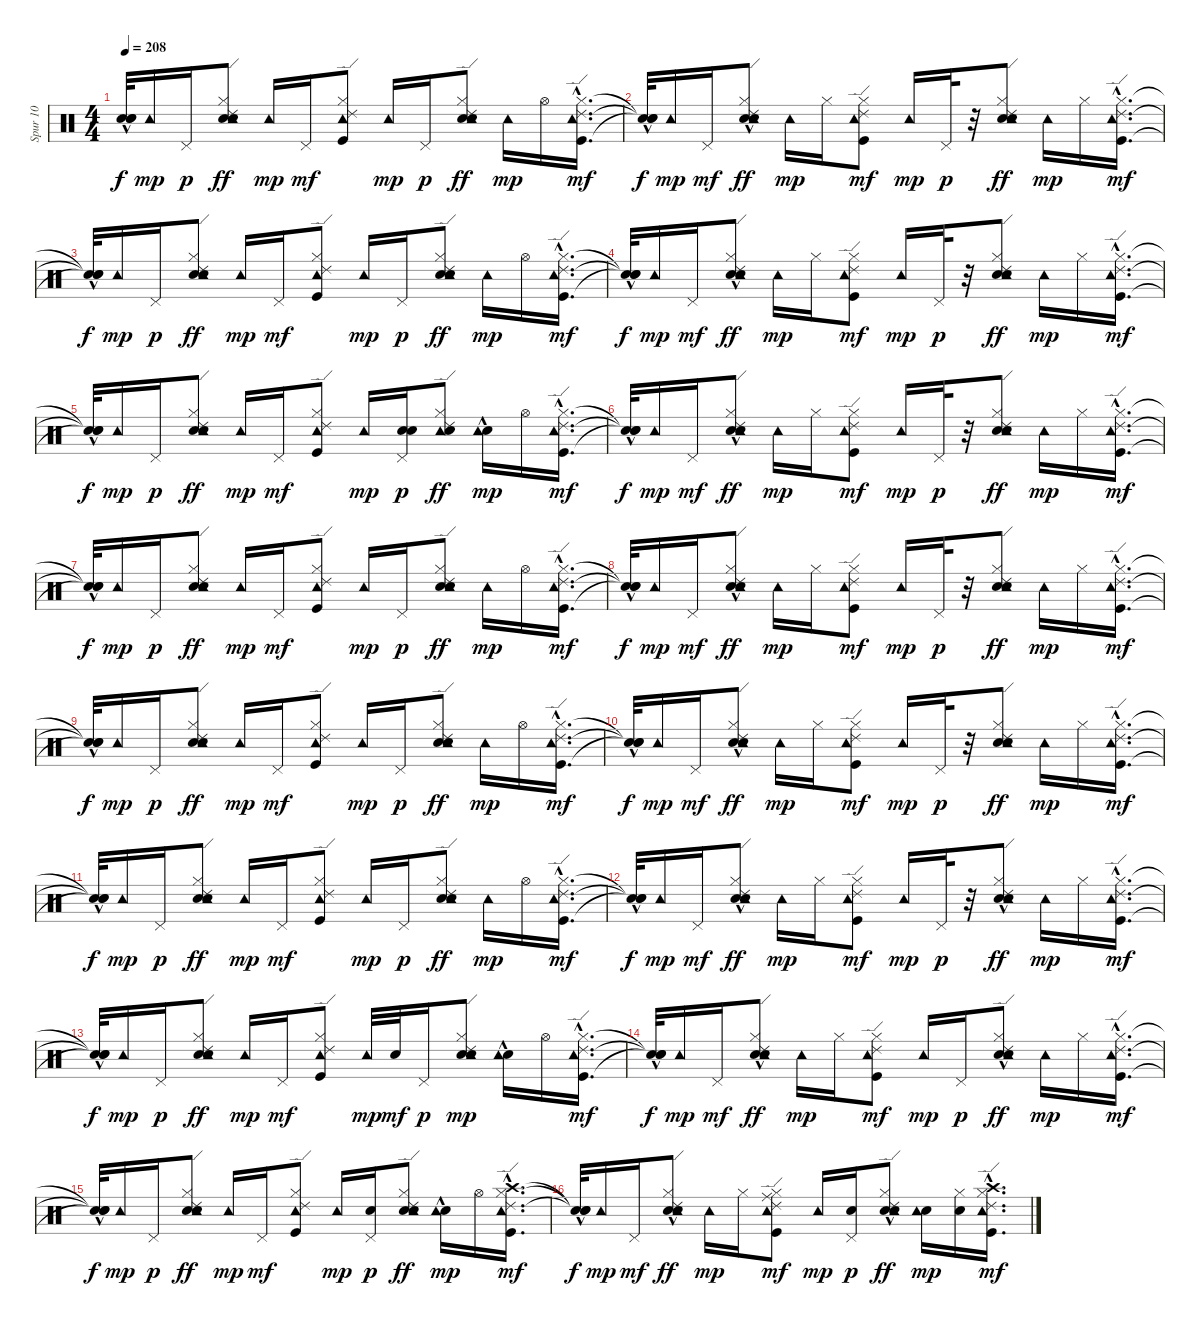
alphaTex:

\track ("Spur 10" "Spur 10") {instrument percussion}
\staff {score}
\articulation defaults
\ts (4 4)
\tempo 208
\clef neutral
\ks c
("Snare (hit)"{t} "Snare (hit)"{hac t} "Snare (hit)"{t}).32{dy f} "Tambourine (hit)".16{dy mp} "Pedal Hi-Hat (hit)".16{dy p} ("Hand Clap (hit)" "Tambourine (hit)" "Hi-Hat (closed)" "Electric Snare (hit)" "Ride (edge) 2").8{dy ff} "Tambourine (hit)".16{dy mp} "Pedal Hi-Hat (hit)".16{dy mf} ("Tambourine (hit)" "Hi-Hat (closed)" "Kick (hit)" "Ride (edge) 2").8 "Tambourine (hit)".16{dy mp} "Pedal Hi-Hat (hit)".16{dy p} ("Hand Clap (hit)" "Tambourine (hit)" "Hi-Hat (closed)" "Electric Snare (hit)" "Ride (edge) 2").8{dy ff} "Tambourine (hit)".16{dy mp} "Hi-Hat (open)".16 ("Tambourine (hit)" "Hi-Hat (closed)"{hac} "Kick (hit)"{hac} "Ride (edge) 2"{hac}).16{d dy mf} |
("Snare (hit)"{t} "Snare (hit)"{hac t} "Snare (hit)"{t}).32{dy f} "Tambourine (hit)".16{dy mp} "Pedal Hi-Hat (hit)".16{dy mf} ("Hand Clap (hit)" "Tambourine (hit)" "Hi-Hat (closed)"{hac} "Electric Snare (hit)" "Ride (edge) 2").8{dy ff} "Tambourine (hit)".16{dy mp} "Hi-Hat (closed)".16 ("Tambourine (hit)" "Hi-Hat (closed)" "Kick (hit)" "Ride (edge) 2").8{dy mf} "Tambourine (hit)".16{dy mp} "Pedal Hi-Hat (hit)".32{dy p} r.32 ("Hand Clap (hit)" "Tambourine (hit)" "Hi-Hat (closed)" "Electric Snare (hit)" "Ride (edge) 2").8{dy ff} "Tambourine (hit)".16{dy mp} "Hi-Hat (closed)".16 ("Tambourine (hit)" "Hi-Hat (closed)"{hac} "Kick (hit)"{hac} "Ride (edge) 2"{hac}).16{d dy mf} |
("Snare (hit)"{t} "Snare (hit)"{hac t} "Snare (hit)"{t}).32{dy f} "Tambourine (hit)".16{dy mp} "Pedal Hi-Hat (hit)".16{dy p} ("Hand Clap (hit)" "Tambourine (hit)" "Hi-Hat (closed)" "Electric Snare (hit)" "Ride (edge) 2").8{dy ff} "Tambourine (hit)".16{dy mp} "Pedal Hi-Hat (hit)".16{dy mf} ("Tambourine (hit)" "Hi-Hat (closed)" "Kick (hit)" "Ride (edge) 2").8 "Tambourine (hit)".16{dy mp} "Pedal Hi-Hat (hit)".16{dy p} ("Hand Clap (hit)" "Tambourine (hit)" "Hi-Hat (closed)" "Electric Snare (hit)" "Ride (edge) 2").8{dy ff} "Tambourine (hit)".16{dy mp} "Hi-Hat (open)".16 ("Tambourine (hit)" "Hi-Hat (closed)"{hac} "Kick (hit)"{hac} "Ride (edge) 2"{hac}).16{d dy mf} |
("Snare (hit)"{t} "Snare (hit)"{hac t} "Snare (hit)"{t}).32{dy f} "Tambourine (hit)".16{dy mp} "Pedal Hi-Hat (hit)".16{dy mf} ("Hand Clap (hit)" "Tambourine (hit)" "Hi-Hat (closed)"{hac} "Electric Snare (hit)" "Ride (edge) 2").8{dy ff} "Tambourine (hit)".16{dy mp} "Hi-Hat (closed)".16 ("Tambourine (hit)" "Hi-Hat (closed)" "Kick (hit)" "Ride (edge) 2").8{dy mf} "Tambourine (hit)".16{dy mp} "Pedal Hi-Hat (hit)".32{dy p} r.32 ("Hand Clap (hit)" "Tambourine (hit)" "Hi-Hat (closed)" "Electric Snare (hit)" "Ride (edge) 2").8{dy ff} "Tambourine (hit)".16{dy mp} "Hi-Hat (closed)".16 ("Tambourine (hit)" "Hi-Hat (closed)"{hac} "Kick (hit)"{hac} "Ride (edge) 2"{hac}).16{d dy mf} |
("Snare (hit)"{t} "Snare (hit)"{hac t} "Snare (hit)"{t}).32{dy f} "Tambourine (hit)".16{dy mp} "Pedal Hi-Hat (hit)".16{dy p} ("Hand Clap (hit)" "Tambourine (hit)" "Hi-Hat (closed)" "Electric Snare (hit)" "Ride (edge) 2").8{dy ff} "Tambourine (hit)".16{dy mp} "Pedal Hi-Hat (hit)".16{dy mf} ("Tambourine (hit)" "Hi-Hat (closed)" "Kick (hit)" "Ride (edge) 2").8 "Tambourine (hit)".16{dy mp} ("Electric Snare (hit)" "Pedal Hi-Hat (hit)" "Hand Clap (hit)").16{dy p} ("Tambourine (hit)" "Hi-Hat (closed)" "Electric Snare (hit)" "Ride (edge) 2").8{dy ff} ("Electric Snare (hit)"{hac} "Tambourine (hit)").16{dy mp} "Hi-Hat (open)".16 ("Tambourine (hit)" "Hi-Hat (closed)"{hac} "Kick (hit)"{hac} "Ride (edge) 2"{hac}).16{d dy mf} |
("Snare (hit)"{t} "Snare (hit)"{hac t} "Snare (hit)"{t}).32{dy f} "Tambourine (hit)".16{dy mp} "Pedal Hi-Hat (hit)".16{dy mf} ("Hand Clap (hit)" "Tambourine (hit)" "Hi-Hat (closed)"{hac} "Electric Snare (hit)" "Ride (edge) 2").8{dy ff} "Tambourine (hit)".16{dy mp} "Hi-Hat (closed)".16 ("Tambourine (hit)" "Hi-Hat (closed)" "Kick (hit)" "Ride (edge) 2").8{dy mf} "Tambourine (hit)".16{dy mp} "Pedal Hi-Hat (hit)".32{dy p} r.32 ("Hand Clap (hit)" "Tambourine (hit)" "Hi-Hat (closed)" "Electric Snare (hit)" "Ride (edge) 2").8{dy ff} "Tambourine (hit)".16{dy mp} "Hi-Hat (closed)".16 ("Tambourine (hit)" "Hi-Hat (closed)"{hac} "Kick (hit)"{hac} "Ride (edge) 2"{hac}).16{d dy mf} |
("Snare (hit)"{t} "Snare (hit)"{hac t} "Snare (hit)"{t}).32{dy f} "Tambourine (hit)".16{dy mp} "Pedal Hi-Hat (hit)".16{dy p} ("Hand Clap (hit)" "Tambourine (hit)" "Hi-Hat (closed)" "Electric Snare (hit)" "Ride (edge) 2").8{dy ff} "Tambourine (hit)".16{dy mp} "Pedal Hi-Hat (hit)".16{dy mf} ("Tambourine (hit)" "Hi-Hat (closed)" "Kick (hit)" "Ride (edge) 2").8 "Tambourine (hit)".16{dy mp} "Pedal Hi-Hat (hit)".16{dy p} ("Hand Clap (hit)" "Tambourine (hit)" "Hi-Hat (closed)" "Electric Snare (hit)" "Ride (edge) 2").8{dy ff} "Tambourine (hit)".16{dy mp} "Hi-Hat (open)".16 ("Tambourine (hit)" "Hi-Hat (closed)"{hac} "Kick (hit)"{hac} "Ride (edge) 2"{hac}).16{d dy mf} |
("Snare (hit)"{t} "Snare (hit)"{hac t} "Snare (hit)"{t}).32{dy f} "Tambourine (hit)".16{dy mp} "Pedal Hi-Hat (hit)".16{dy mf} ("Hand Clap (hit)" "Tambourine (hit)" "Hi-Hat (closed)"{hac} "Electric Snare (hit)" "Ride (edge) 2").8{dy ff} "Tambourine (hit)".16{dy mp} "Hi-Hat (closed)".16 ("Tambourine (hit)" "Hi-Hat (closed)" "Kick (hit)" "Ride (edge) 2").8{dy mf} "Tambourine (hit)".16{dy mp} "Pedal Hi-Hat (hit)".32{dy p} r.32 ("Hand Clap (hit)" "Tambourine (hit)" "Hi-Hat (closed)" "Electric Snare (hit)" "Ride (edge) 2").8{dy ff} "Tambourine (hit)".16{dy mp} "Hi-Hat (closed)".16 ("Tambourine (hit)" "Hi-Hat (closed)"{hac} "Kick (hit)"{hac} "Ride (edge) 2"{hac}).16{d dy mf} |
("Snare (hit)"{t} "Snare (hit)"{hac t} "Snare (hit)"{t}).32{dy f} "Tambourine (hit)".16{dy mp} "Pedal Hi-Hat (hit)".16{dy p} ("Hand Clap (hit)" "Tambourine (hit)" "Hi-Hat (closed)" "Electric Snare (hit)" "Ride (edge) 2").8{dy ff} "Tambourine (hit)".16{dy mp} "Pedal Hi-Hat (hit)".16{dy mf} ("Tambourine (hit)" "Hi-Hat (closed)" "Kick (hit)" "Ride (edge) 2").8 "Tambourine (hit)".16{dy mp} "Pedal Hi-Hat (hit)".16{dy p} ("Hand Clap (hit)" "Tambourine (hit)" "Hi-Hat (closed)" "Electric Snare (hit)" "Ride (edge) 2").8{dy ff} "Tambourine (hit)".16{dy mp} "Hi-Hat (open)".16 ("Tambourine (hit)" "Hi-Hat (closed)"{hac} "Kick (hit)"{hac} "Ride (edge) 2"{hac}).16{d dy mf} |
("Snare (hit)"{t} "Snare (hit)"{hac t} "Snare (hit)"{t}).32{dy f} "Tambourine (hit)".16{dy mp} "Pedal Hi-Hat (hit)".16{dy mf} ("Hand Clap (hit)" "Tambourine (hit)" "Hi-Hat (closed)"{hac} "Electric Snare (hit)" "Ride (edge) 2").8{dy ff} "Tambourine (hit)".16{dy mp} "Hi-Hat (closed)".16 ("Tambourine (hit)" "Hi-Hat (closed)" "Kick (hit)" "Ride (edge) 2").8{dy mf} "Tambourine (hit)".16{dy mp} "Pedal Hi-Hat (hit)".32{dy p} r.32 ("Hand Clap (hit)" "Tambourine (hit)" "Hi-Hat (closed)" "Electric Snare (hit)" "Ride (edge) 2").8{dy ff} "Tambourine (hit)".16{dy mp} "Hi-Hat (closed)".16 ("Tambourine (hit)" "Hi-Hat (closed)"{hac} "Kick (hit)"{hac} "Ride (edge) 2"{hac}).16{d dy mf} |
("Snare (hit)"{t} "Snare (hit)"{hac t} "Snare (hit)"{t}).32{dy f} "Tambourine (hit)".16{dy mp} "Pedal Hi-Hat (hit)".16{dy p} ("Hand Clap (hit)" "Tambourine (hit)" "Hi-Hat (closed)" "Electric Snare (hit)" "Ride (edge) 2").8{dy ff} "Tambourine (hit)".16{dy mp} "Pedal Hi-Hat (hit)".16{dy mf} ("Tambourine (hit)" "Hi-Hat (closed)" "Kick (hit)" "Ride (edge) 2").8 "Tambourine (hit)".16{dy mp} "Pedal Hi-Hat (hit)".16{dy p} ("Hand Clap (hit)" "Tambourine (hit)" "Hi-Hat (closed)" "Electric Snare (hit)" "Ride (edge) 2").8{dy ff} "Tambourine (hit)".16{dy mp} "Hi-Hat (open)".16 ("Tambourine (hit)" "Hi-Hat (closed)"{hac} "Kick (hit)"{hac} "Ride (edge) 2"{hac}).16{d dy mf} |
("Snare (hit)"{t} "Snare (hit)"{hac t} "Snare (hit)"{t}).32{dy f} "Tambourine (hit)".16{dy mp} "Pedal Hi-Hat (hit)".16{dy mf} ("Hand Clap (hit)" "Tambourine (hit)" "Hi-Hat (closed)"{hac} "Electric Snare (hit)" "Ride (edge) 2").8{dy ff} "Tambourine (hit)".16{dy mp} "Hi-Hat (closed)".16 ("Tambourine (hit)" "Hi-Hat (closed)" "Kick (hit)" "Ride (edge) 2").8{dy mf} "Tambourine (hit)".16{dy mp} "Pedal Hi-Hat (hit)".32{dy p} r.32 ("Hand Clap (hit)" "Tambourine (hit)" "Hi-Hat (closed)"{hac} "Electric Snare (hit)" "Ride (edge) 2").8{dy ff} "Tambourine (hit)".16{dy mp} "Hi-Hat (closed)".16 ("Tambourine (hit)" "Hi-Hat (closed)"{hac} "Kick (hit)"{hac} "Ride (edge) 2"{hac}).16{d dy mf} |
("Snare (hit)"{t} "Snare (hit)"{hac t} "Snare (hit)"{t}).32{dy f} "Tambourine (hit)".16{dy mp} "Pedal Hi-Hat (hit)".16{dy p} ("Hand Clap (hit)" "Tambourine (hit)" "Hi-Hat (closed)" "Electric Snare (hit)" "Ride (edge) 2").8{dy ff} "Tambourine (hit)".16{dy mp} "Pedal Hi-Hat (hit)".16{dy mf} ("Tambourine (hit)" "Hi-Hat (closed)" "Kick (hit)" "Ride (edge) 2").8 "Tambourine (hit)".32{dy mp} "Electric Snare (hit)".32{dy mf} "Pedal Hi-Hat (hit)".16{dy p} ("Hand Clap (hit)" "Electric Snare (hit)" "Tambourine (hit)" "Hi-Hat (closed)" "Ride (edge) 2").8{dy mp} ("Electric Snare (hit)"{hac} "Tambourine (hit)").16 "Hi-Hat (open)".16 ("Tambourine (hit)" "Hi-Hat (closed)"{hac} "Kick (hit)"{hac} "Ride (edge) 2"{hac}).16{d dy mf} |
("Snare (hit)"{t} "Snare (hit)"{hac t} "Snare (hit)"{t}).32{dy f} "Tambourine (hit)".16{dy mp} "Pedal Hi-Hat (hit)".16{dy mf} ("Hand Clap (hit)" "Tambourine (hit)" "Hi-Hat (closed)"{hac} "Electric Snare (hit)" "Ride (edge) 2").8{dy ff} "Tambourine (hit)".16{dy mp} "Hi-Hat (closed)".16 ("Tambourine (hit)" "Hi-Hat (closed)" "Kick (hit)" "Ride (edge) 2").8{dy mf} "Tambourine (hit)".16{dy mp} "Pedal Hi-Hat (hit)".16{dy p} ("Hand Clap (hit)" "Tambourine (hit)" "Hi-Hat (closed)"{hac} "Electric Snare (hit)" "Ride (edge) 2").8{dy ff} "Tambourine (hit)".16{dy mp} "Hi-Hat (closed)".16 ("Tambourine (hit)" "Hi-Hat (closed)"{hac} "Kick (hit)"{hac} "Ride (edge) 2"{hac}).16{d dy mf} |
("Snare (hit)"{t} "Snare (hit)"{hac t} "Snare (hit)"{t}).32{dy f} "Tambourine (hit)".16{dy mp} "Pedal Hi-Hat (hit)".16{dy p} ("Hand Clap (hit)" "Tambourine (hit)" "Hi-Hat (closed)" "Electric Snare (hit)" "Ride (edge) 2").8{dy ff} "Tambourine (hit)".16{dy mp} "Pedal Hi-Hat (hit)".16{dy mf} ("Tambourine (hit)" "Hi-Hat (closed)" "Kick (hit)" "Ride (edge) 2").8 "Tambourine (hit)".16{dy mp} ("Electric Snare (hit)" "Pedal Hi-Hat (hit)").16{dy p} ("Hand Clap (hit)" "Tambourine (hit)" "Hi-Hat (closed)" "Electric Snare (hit)" "Ride (edge) 2").8{dy ff} ("Electric Snare (hit)"{hac} "Tambourine (hit)").16{dy mp} "Hi-Hat (open)".16 ("Crash high (hit)" "Tambourine (hit)" "Hi-Hat (closed)"{hac} "Kick (hit)"{hac} "Ride (edge) 2"{hac}).16{d dy mf} |
("Snare (hit)"{t} "Snare (hit)"{hac t} "Snare (hit)"{t}).32{dy f} "Tambourine (hit)".16{dy mp} "Pedal Hi-Hat (hit)".16{dy mf} ("Hand Clap (hit)" "Tambourine (hit)" "Hi-Hat (closed)"{hac} "Electric Snare (hit)" "Ride (edge) 2").8{dy ff} "Tambourine (hit)".16{dy mp} "Hi-Hat (closed)".16 ("Ride (middle)" "Tambourine (hit)" "Hi-Hat (closed)" "Kick (hit)" "Ride (edge) 2").8{dy mf} "Tambourine (hit)".16{dy mp} ("Electric Snare (hit)" "Pedal Hi-Hat (hit)").16{dy p} ("Hand Clap (hit)" "Tambourine (hit)" "Hi-Hat (closed)"{hac} "Electric Snare (hit)" "Ride (edge) 2").8{dy ff} ("Electric Snare (hit)" "Tambourine (hit)").16{dy mp} ("Electric Snare (hit)" "Hi-Hat (closed)").16 ("Crash high (hit)" "Tambourine (hit)" "Hi-Hat (closed)"{hac} "Kick (hit)"{hac} "Ride (edge) 2"{hac}).16{d dy mf}
